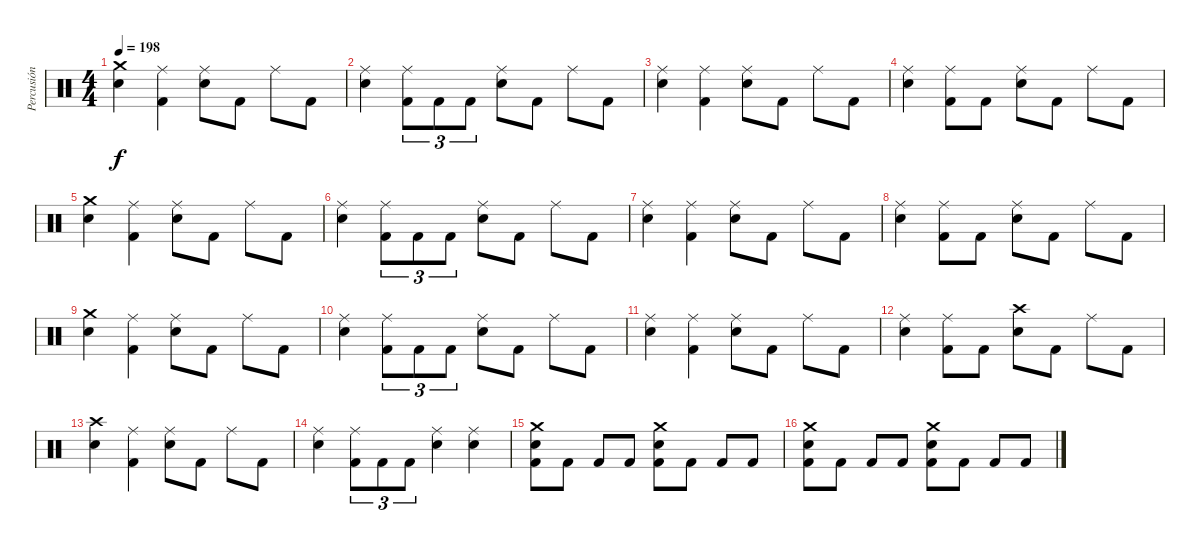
\track ("Percusión" "Percusión") {instrument percussion}
\staff {score}
\articulation defaults
\ts (4 4)
\tempo 198
\clef neutral
\ks c
("Crash medium (hit)" "Electric Snare (hit)").4{dy f} ("Ride (middle)" "Kick (hit) 2").4 ("Ride (middle)" "Electric Snare (hit)").8 "Kick (hit) 2".8 "Ride (middle)".8 "Kick (hit) 2".8 |
("Ride (middle)" "Electric Snare (hit)").4 ("Ride (middle)" "Kick (hit) 2").8{tu (3 2)} "Kick (hit) 2".8{tu (3 2)} "Kick (hit) 2".8{tu (3 2)} ("Ride (middle)" "Electric Snare (hit)").8 "Kick (hit) 2".8 "Ride (middle)".8 "Kick (hit) 2".8 |
("Ride (middle)" "Electric Snare (hit)").4 ("Ride (middle)" "Kick (hit) 2").4 ("Ride (middle)" "Electric Snare (hit)").8 "Kick (hit) 2".8 "Ride (middle)".8 "Kick (hit) 2".8 |
("Ride (middle)" "Electric Snare (hit)").4 ("Ride (middle)" "Kick (hit) 2").8 "Kick (hit) 2".8 ("Ride (middle)" "Electric Snare (hit)").8 "Kick (hit) 2".8 "Ride (middle)".8 "Kick (hit) 2".8 |
("Crash medium (hit)" "Electric Snare (hit)").4 ("Ride (middle)" "Kick (hit) 2").4 ("Ride (middle)" "Electric Snare (hit)").8 "Kick (hit) 2".8 "Ride (middle)".8 "Kick (hit) 2".8 |
("Ride (middle)" "Electric Snare (hit)").4 ("Ride (middle)" "Kick (hit) 2").8{tu (3 2)} "Kick (hit) 2".8{tu (3 2)} "Kick (hit) 2".8{tu (3 2)} ("Ride (middle)" "Electric Snare (hit)").8 "Kick (hit) 2".8 "Ride (middle)".8 "Kick (hit) 2".8 |
("Ride (middle)" "Electric Snare (hit)").4 ("Ride (middle)" "Kick (hit) 2").4 ("Ride (middle)" "Electric Snare (hit)").8 "Kick (hit) 2".8 "Ride (middle)".8 "Kick (hit) 2".8 |
("Ride (middle)" "Electric Snare (hit)").4 ("Ride (middle)" "Kick (hit) 2").8 "Kick (hit) 2".8 ("Ride (middle)" "Electric Snare (hit)").8 "Kick (hit) 2".8 "Ride (middle)".8 "Kick (hit) 2".8 |
("Crash medium (hit)" "Electric Snare (hit)").4 ("Ride (middle)" "Kick (hit) 2").4 ("Ride (middle)" "Electric Snare (hit)").8 "Kick (hit) 2".8 "Ride (middle)".8 "Kick (hit) 2".8 |
("Ride (middle)" "Electric Snare (hit)").4 ("Ride (middle)" "Kick (hit) 2").8{tu (3 2)} "Kick (hit) 2".8{tu (3 2)} "Kick (hit) 2".8{tu (3 2)} ("Ride (middle)" "Electric Snare (hit)").8 "Kick (hit) 2".8 "Ride (middle)".8 "Kick (hit) 2".8 |
("Ride (middle)" "Electric Snare (hit)").4 ("Ride (middle)" "Kick (hit) 2").4 ("Ride (middle)" "Electric Snare (hit)").8 "Kick (hit) 2".8 "Ride (middle)".8 "Kick (hit) 2".8 |
("Ride (middle)" "Electric Snare (hit)").4 ("Ride (middle)" "Kick (hit) 2").8 "Kick (hit) 2".8 ("Crash high (hit)" "Electric Snare (hit)").8 "Kick (hit) 2".8 "Ride (middle)".8 "Kick (hit) 2".8 |
("Crash high (hit)" "Electric Snare (hit)").4 ("Ride (middle)" "Kick (hit) 2").4 ("Ride (middle)" "Electric Snare (hit)").8 "Kick (hit) 2".8 "Ride (middle)".8 "Kick (hit) 2".8 |
("Ride (middle)" "Electric Snare (hit)").4 ("Ride (middle)" "Kick (hit) 2").8{tu (3 2)} "Kick (hit) 2".8{tu (3 2)} "Kick (hit) 2".8{tu (3 2)} ("Ride (middle)" "Electric Snare (hit)").4 ("Ride (middle)" "Electric Snare (hit)").4 |
("Crash medium (hit)" "Electric Snare (hit)" "Kick (hit) 2").8 "Kick (hit) 2".8 "Kick (hit) 2".8 "Kick (hit) 2".8 ("Crash medium (hit)" "Electric Snare (hit)" "Kick (hit) 2").8 "Kick (hit) 2".8 "Kick (hit) 2".8 "Kick (hit) 2".8 |
("Crash medium (hit)" "Electric Snare (hit)" "Kick (hit) 2").8 "Kick (hit) 2".8 "Kick (hit) 2".8 "Kick (hit) 2".8 ("Crash medium (hit)" "Electric Snare (hit)" "Kick (hit) 2").8 "Kick (hit) 2".8 "Kick (hit) 2".8 "Kick (hit) 2".8
